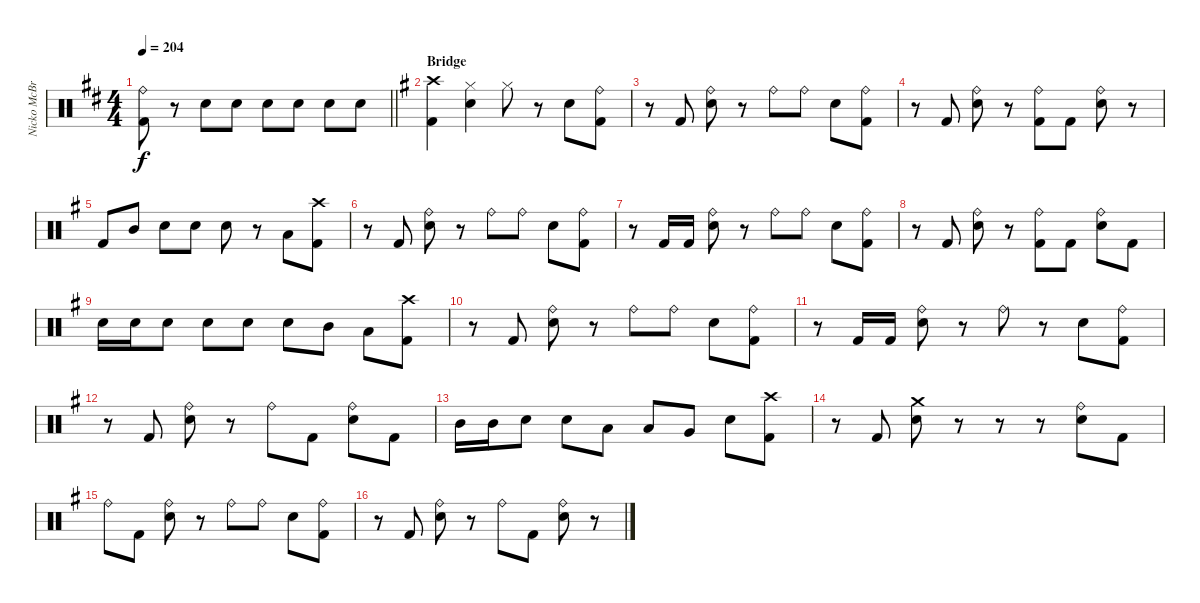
\track ("Nicko McBrain (Drums)" "Nicko McBr") {instrument percussion}
\staff {score}
\articulation defaults
\ts (4 4)
\tempo 204
\clef neutral
\barLineRight lightlight
\ks bminor
("Ride (bell)" "Kick (hit) 2").8{dy f} r.8 "Snare (hit) 2".8 "Snare (hit) 2".8 "Snare (hit) 2".8 "Snare (hit) 2".8 "Snare (hit) 2".8 "Snare (hit) 2".8 |
\section ("" "Bridge")
\ks eminor
("Crash high (hit)" "Kick (hit) 2").4 ("Hi-Hat (closed)" "Snare (hit) 2").4 "Hi-Hat (closed)".8 r.8 "Snare (hit) 2".8 ("Ride (bell)" "Kick (hit) 2").8 |
r.8 "Kick (hit) 2".8 ("Ride (bell)" "Snare (hit) 2").8 r.8 "Ride (bell)".8 "Ride (bell)".8 "Snare (hit) 2".8 ("Ride (bell)" "Kick (hit) 2").8 |
r.8 "Kick (hit) 2".8 ("Ride (bell)" "Snare (hit) 2").8 r.8 ("Ride (bell)" "Kick (hit) 2").8 "Kick (hit) 2".8 ("Ride (bell)" "Snare (hit) 2").8 r.8 |
"Kick (hit) 2".8 "Mid Tom (hit)".8 "Snare (hit) 2".8 "Snare (hit) 2".8 "Snare (hit) 2".8 r.8 "Low Tom (hit)".8 ("Crash high (hit)" "Kick (hit) 2").8 |
r.8 "Kick (hit) 2".8 ("Ride (bell)" "Snare (hit) 2").8 r.8 "Ride (bell)".8 "Ride (bell)".8 "Snare (hit) 2".8 ("Ride (bell)" "Kick (hit) 2").8 |
r.8 "Kick (hit) 2".16 "Kick (hit) 2".16 ("Ride (bell)" "Snare (hit) 2").8 r.8 "Ride (bell)".8 "Ride (bell)".8 "Snare (hit) 2".8 ("Ride (bell)" "Kick (hit) 2").8 |
r.8 "Kick (hit) 2".8 ("Ride (bell)" "Snare (hit) 2").8 r.8 ("Ride (bell)" "Kick (hit) 2").8 "Kick (hit) 2".8 ("Ride (bell)" "Snare (hit) 2").8 "Kick (hit) 2".8 |
"Snare (hit) 2".16 "Snare (hit) 2".16 "Snare (hit) 2".8 "Snare (hit) 2".8 "Snare (hit) 2".8 "Snare (hit) 2".8 "Mid Tom (hit)".8 "Low Tom (hit)".8 ("Crash high (hit)" "Kick (hit) 2").8 |
r.8 "Kick (hit) 2".8 ("Ride (bell)" "Snare (hit) 2").8 r.8 "Ride (bell)".8 "Ride (bell)".8 "Snare (hit) 2".8 ("Ride (bell)" "Kick (hit) 2").8 |
r.8 "Kick (hit) 2".16 "Kick (hit) 2".16 ("Ride (bell)" "Snare (hit) 2").8 r.8 "Ride (bell)".8 r.8 "Snare (hit) 2".8 ("Ride (bell)" "Kick (hit) 2").8 |
r.8 "Kick (hit) 2".8 ("Ride (bell)" "Snare (hit) 2").8 r.8 "Ride (bell)".8 "Kick (hit) 2".8 ("Ride (bell)" "Snare (hit) 2").8 "Kick (hit) 2".8 |
"Mid Tom (hit)".16 "Mid Tom (hit)".16 "Snare (hit) 2".8 "Snare (hit) 2".8 "Low Tom (hit)".8 "Low Tom (hit)".8 "Very Low Tom (hit)".8 "Snare (hit) 2".8 ("Crash high (hit)" "Kick (hit) 2").8 |
r.8 "Kick (hit) 2".8 ("Crash medium (hit)" "Snare (hit) 2").8 r.8 r.8 r.8 ("Ride (bell)" "Snare (hit) 2").8 "Kick (hit) 2".8 |
"Ride (bell)".8 "Kick (hit) 2".8 ("Ride (bell)" "Snare (hit) 2").8 r.8 "Ride (bell)".8 "Ride (bell)".8 "Snare (hit) 2".8 ("Ride (bell)" "Kick (hit) 2").8 |
r.8 "Kick (hit) 2".8 ("Ride (bell)" "Snare (hit) 2").8 r.8 "Ride (bell)".8 "Kick (hit) 2".8 ("Ride (bell)" "Snare (hit) 2").8 r.8
